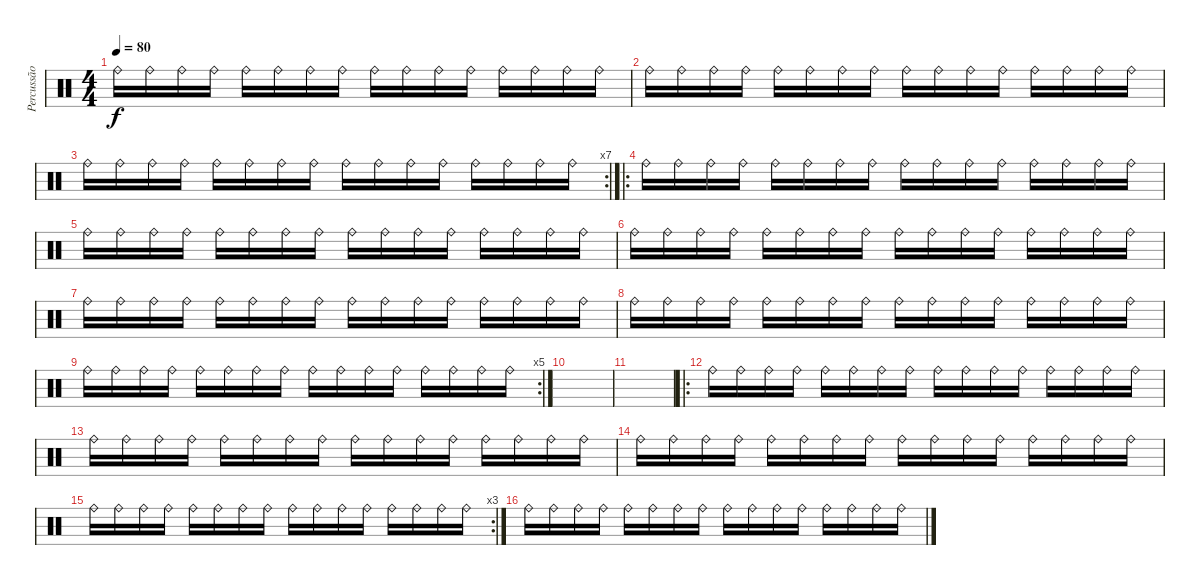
\track ("Percussão" "Percussão") {instrument percussion}
\staff {score}
\articulation defaults
\ts (4 4)
\tempo 80
\clef neutral
\ks c "Ride (bell)".16{dy f} "Ride (bell)".16 "Ride (bell)".16 "Ride (bell)".16 "Ride (bell)".16 "Ride (bell)".16 "Ride (bell)".16 "Ride (bell)".16 "Ride (bell)".16 "Ride (bell)".16 "Ride (bell)".16 "Ride (bell)".16 "Ride (bell)".16 "Ride (bell)".16 "Ride (bell)".16 "Ride (bell)".16
|
"Ride (bell)".16 "Ride (bell)".16 "Ride (bell)".16 "Ride (bell)".16 "Ride (bell)".16 "Ride (bell)".16 "Ride (bell)".16 "Ride (bell)".16 "Ride (bell)".16 "Ride (bell)".16 "Ride (bell)".16 "Ride (bell)".16 "Ride (bell)".16 "Ride (bell)".16 "Ride (bell)".16 "Ride (bell)".16 |
\rc 7 "Ride (bell)".16 "Ride (bell)".16 "Ride (bell)".16 "Ride (bell)".16 "Ride (bell)".16 "Ride (bell)".16 "Ride (bell)".16 "Ride (bell)".16 "Ride (bell)".16 "Ride (bell)".16 "Ride (bell)".16 "Ride (bell)".16 "Ride (bell)".16 "Ride (bell)".16 "Ride (bell)".16 "Ride (bell)".16
|
\ro "Ride (bell)".16 "Ride (bell)".16 "Ride (bell)".16 "Ride (bell)".16 "Ride (bell)".16 "Ride (bell)".16 "Ride (bell)".16 "Ride (bell)".16 "Ride (bell)".16 "Ride (bell)".16 "Ride (bell)".16 "Ride (bell)".16 "Ride (bell)".16 "Ride (bell)".16 "Ride (bell)".16 "Ride (bell)".16
|
"Ride (bell)".16 "Ride (bell)".16 "Ride (bell)".16 "Ride (bell)".16 "Ride (bell)".16 "Ride (bell)".16 "Ride (bell)".16 "Ride (bell)".16 "Ride (bell)".16 "Ride (bell)".16 "Ride (bell)".16 "Ride (bell)".16 "Ride (bell)".16 "Ride (bell)".16 "Ride (bell)".16 "Ride (bell)".16 |
"Ride (bell)".16 "Ride (bell)".16 "Ride (bell)".16 "Ride (bell)".16 "Ride (bell)".16 "Ride (bell)".16 "Ride (bell)".16 "Ride (bell)".16 "Ride (bell)".16 "Ride (bell)".16 "Ride (bell)".16 "Ride (bell)".16 "Ride (bell)".16 "Ride (bell)".16 "Ride (bell)".16 "Ride (bell)".16 |
"Ride (bell)".16 "Ride (bell)".16 "Ride (bell)".16 "Ride (bell)".16 "Ride (bell)".16 "Ride (bell)".16 "Ride (bell)".16 "Ride (bell)".16 "Ride (bell)".16 "Ride (bell)".16 "Ride (bell)".16 "Ride (bell)".16 "Ride (bell)".16 "Ride (bell)".16 "Ride (bell)".16 "Ride (bell)".16 |
"Ride (bell)".16 "Ride (bell)".16 "Ride (bell)".16 "Ride (bell)".16 "Ride (bell)".16 "Ride (bell)".16 "Ride (bell)".16 "Ride (bell)".16 "Ride (bell)".16 "Ride (bell)".16 "Ride (bell)".16 "Ride (bell)".16 "Ride (bell)".16 "Ride (bell)".16 "Ride (bell)".16 "Ride (bell)".16 |
\rc 5 "Ride (bell)".16 "Ride (bell)".16 "Ride (bell)".16 "Ride (bell)".16 "Ride (bell)".16 "Ride (bell)".16 "Ride (bell)".16 "Ride (bell)".16 "Ride (bell)".16 "Ride (bell)".16 "Ride (bell)".16 "Ride (bell)".16 "Ride (bell)".16 "Ride (bell)".16 "Ride (bell)".16 "Ride (bell)".16
|
|
|
\ro "Ride (bell)".16 "Ride (bell)".16 "Ride (bell)".16 "Ride (bell)".16 "Ride (bell)".16 "Ride (bell)".16 "Ride (bell)".16 "Ride (bell)".16 "Ride (bell)".16 "Ride (bell)".16 "Ride (bell)".16 "Ride (bell)".16 "Ride (bell)".16 "Ride (bell)".16 "Ride (bell)".16 "Ride (bell)".16
|
"Ride (bell)".16 "Ride (bell)".16 "Ride (bell)".16 "Ride (bell)".16 "Ride (bell)".16 "Ride (bell)".16 "Ride (bell)".16 "Ride (bell)".16 "Ride (bell)".16 "Ride (bell)".16 "Ride (bell)".16 "Ride (bell)".16 "Ride (bell)".16 "Ride (bell)".16 "Ride (bell)".16 "Ride (bell)".16 |
"Ride (bell)".16 "Ride (bell)".16 "Ride (bell)".16 "Ride (bell)".16 "Ride (bell)".16 "Ride (bell)".16 "Ride (bell)".16 "Ride (bell)".16 "Ride (bell)".16 "Ride (bell)".16 "Ride (bell)".16 "Ride (bell)".16 "Ride (bell)".16 "Ride (bell)".16 "Ride (bell)".16 "Ride (bell)".16 |
\rc 3 "Ride (bell)".16 "Ride (bell)".16 "Ride (bell)".16 "Ride (bell)".16 "Ride (bell)".16 "Ride (bell)".16 "Ride (bell)".16 "Ride (bell)".16 "Ride (bell)".16 "Ride (bell)".16 "Ride (bell)".16 "Ride (bell)".16 "Ride (bell)".16 "Ride (bell)".16 "Ride (bell)".16 "Ride (bell)".16
|
"Ride (bell)".16 "Ride (bell)".16 "Ride (bell)".16 "Ride (bell)".16 "Ride (bell)".16 "Ride (bell)".16 "Ride (bell)".16 "Ride (bell)".16 "Ride (bell)".16 "Ride (bell)".16 "Ride (bell)".16 "Ride (bell)".16 "Ride (bell)".16 "Ride (bell)".16 "Ride (bell)".16 "Ride (bell)".16
